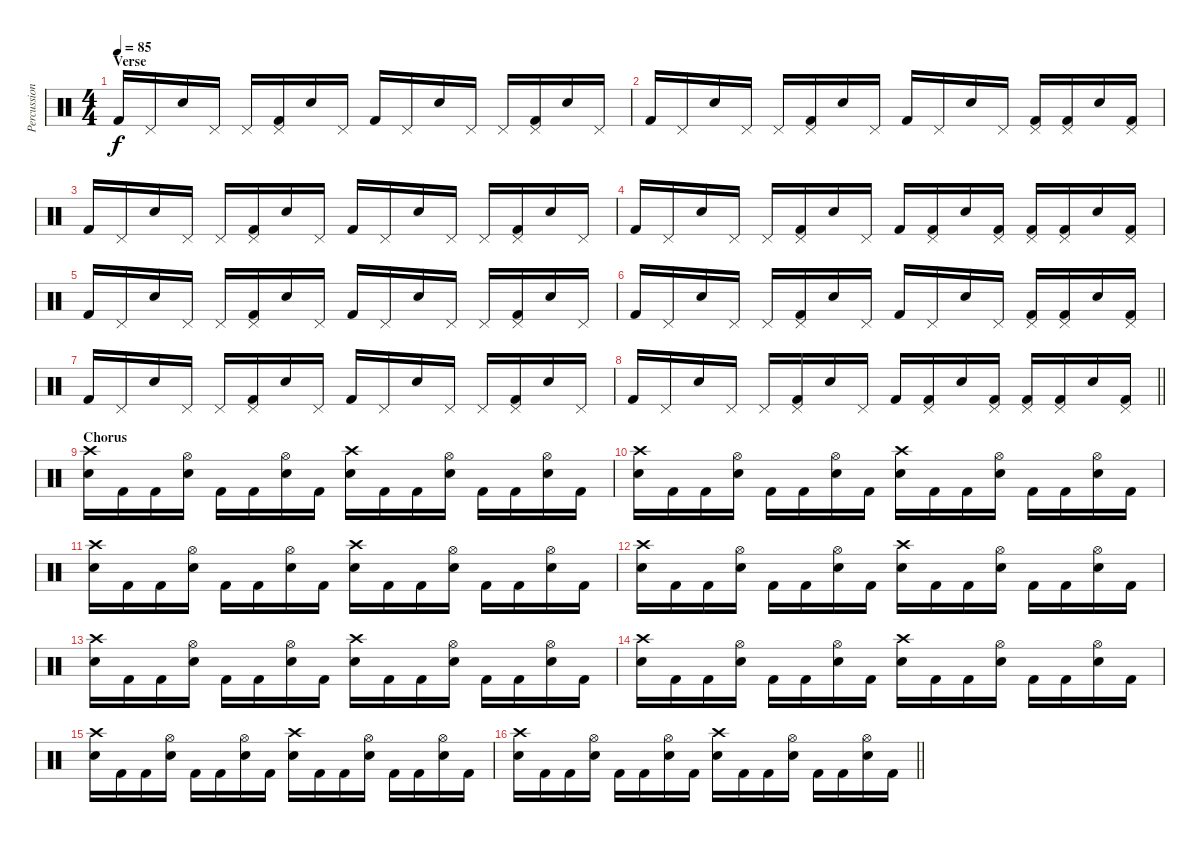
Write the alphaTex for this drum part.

\track ("Percussion" "Percussion") {instrument percussion}
\staff {score}
\articulation defaults
\ts (4 4)
\section ("" "Verse")
\tempo 85
\clef neutral
\ks c "Kick (hit) 2".16{dy f} "Pedal Hi-Hat (hit)".16 "Snare (hit) 2".16 "Pedal Hi-Hat (hit)".16 "Pedal Hi-Hat (hit)".16
("Pedal Hi-Hat (hit)" "Kick (hit) 2").16 "Snare (hit) 2".16 "Pedal Hi-Hat (hit)".16 "Kick (hit) 2".16 "Pedal Hi-Hat (hit)".16 "Snare (hit) 2".16 "Pedal Hi-Hat (hit)".16 "Pedal Hi-Hat (hit)".16 ("Pedal Hi-Hat (hit)" "Kick (hit) 2").16 "Snare (hit) 2".16 "Pedal Hi-Hat (hit)".16 |
"Kick (hit) 2".16 "Pedal Hi-Hat (hit)".16 "Snare (hit) 2".16 "Pedal Hi-Hat (hit)".16 "Pedal Hi-Hat (hit)".16 ("Pedal Hi-Hat (hit)" "Kick (hit) 2").16 "Snare (hit) 2".16 "Pedal Hi-Hat (hit)".16 "Kick (hit) 2".16 "Pedal Hi-Hat (hit)".16 "Snare (hit) 2".16 "Pedal Hi-Hat (hit)".16 ("Pedal Hi-Hat (hit)" "Kick (hit) 2").16 ("Pedal Hi-Hat (hit)" "Kick (hit) 2").16 "Snare (hit) 2".16 ("Pedal Hi-Hat (hit)" "Kick (hit) 2").16 |
"Kick (hit) 2".16 "Pedal Hi-Hat (hit)".16 "Snare (hit) 2".16 "Pedal Hi-Hat (hit)".16 "Pedal Hi-Hat (hit)".16 ("Pedal Hi-Hat (hit)" "Kick (hit) 2").16 "Snare (hit) 2".16 "Pedal Hi-Hat (hit)".16 "Kick (hit) 2".16 "Pedal Hi-Hat (hit)".16 "Snare (hit) 2".16 "Pedal Hi-Hat (hit)".16 "Pedal Hi-Hat (hit)".16 ("Pedal Hi-Hat (hit)" "Kick (hit) 2").16 "Snare (hit) 2".16 "Pedal Hi-Hat (hit)".16 |
"Kick (hit) 2".16 "Pedal Hi-Hat (hit)".16 "Snare (hit) 2".16 "Pedal Hi-Hat (hit)".16 "Pedal Hi-Hat (hit)".16 ("Pedal Hi-Hat (hit)" "Kick (hit) 2").16 "Snare (hit) 2".16 "Pedal Hi-Hat (hit)".16 "Kick (hit) 2".16 ("Pedal Hi-Hat (hit)" "Kick (hit) 2").16 "Snare (hit) 2".16 ("Pedal Hi-Hat (hit)" "Kick (hit) 2").16 ("Pedal Hi-Hat (hit)" "Kick (hit) 2").16 ("Pedal Hi-Hat (hit)" "Kick (hit) 2").16 "Snare (hit) 2".16 ("Pedal Hi-Hat (hit)" "Kick (hit) 2").16 |
"Kick (hit) 2".16 "Pedal Hi-Hat (hit)".16 "Snare (hit) 2".16 "Pedal Hi-Hat (hit)".16 "Pedal Hi-Hat (hit)".16 ("Pedal Hi-Hat (hit)" "Kick (hit) 2").16 "Snare (hit) 2".16 "Pedal Hi-Hat (hit)".16 "Kick (hit) 2".16 "Pedal Hi-Hat (hit)".16 "Snare (hit) 2".16 "Pedal Hi-Hat (hit)".16 "Pedal Hi-Hat (hit)".16 ("Pedal Hi-Hat (hit)" "Kick (hit) 2").16 "Snare (hit) 2".16 "Pedal Hi-Hat (hit)".16 |
"Kick (hit) 2".16 "Pedal Hi-Hat (hit)".16 "Snare (hit) 2".16 "Pedal Hi-Hat (hit)".16 "Pedal Hi-Hat (hit)".16 ("Pedal Hi-Hat (hit)" "Kick (hit) 2").16 "Snare (hit) 2".16 "Pedal Hi-Hat (hit)".16 "Kick (hit) 2".16 "Pedal Hi-Hat (hit)".16 "Snare (hit) 2".16 "Pedal Hi-Hat (hit)".16 ("Pedal Hi-Hat (hit)" "Kick (hit) 2").16 ("Pedal Hi-Hat (hit)" "Kick (hit) 2").16 "Snare (hit) 2".16 ("Pedal Hi-Hat (hit)" "Kick (hit) 2").16 |
"Kick (hit) 2".16 "Pedal Hi-Hat (hit)".16 "Snare (hit) 2".16 "Pedal Hi-Hat (hit)".16 "Pedal Hi-Hat (hit)".16 ("Pedal Hi-Hat (hit)" "Kick (hit) 2").16 "Snare (hit) 2".16 "Pedal Hi-Hat (hit)".16 "Kick (hit) 2".16 "Pedal Hi-Hat (hit)".16 "Snare (hit) 2".16 "Pedal Hi-Hat (hit)".16 "Pedal Hi-Hat (hit)".16 ("Pedal Hi-Hat (hit)" "Kick (hit) 2").16 "Snare (hit) 2".16 "Pedal Hi-Hat (hit)".16 |
\barLineRight lightlight "Kick (hit) 2".16 "Pedal Hi-Hat (hit)".16 "Snare (hit) 2".16 "Pedal Hi-Hat (hit)".16 "Pedal Hi-Hat (hit)".16
("Pedal Hi-Hat (hit)" "Kick (hit) 2").16 "Snare (hit) 2".16 "Pedal Hi-Hat (hit)".16 "Kick (hit) 2".16 ("Pedal Hi-Hat (hit)" "Kick (hit) 2").16 "Snare (hit) 2".16 ("Pedal Hi-Hat (hit)" "Kick (hit) 2").16 ("Pedal Hi-Hat (hit)" "Kick (hit) 2").16 ("Pedal Hi-Hat (hit)" "Kick (hit) 2").16 "Snare (hit) 2".16 ("Pedal Hi-Hat (hit)" "Kick (hit) 2").16 |
\section ("" "Chorus")
("Crash high (hit)" "Snare (hit) 2").16 "Kick (hit) 2".16 "Kick (hit) 2".16 ("Hi-Hat (open)" "Snare (hit) 2").16 "Kick (hit) 2".16 "Kick (hit) 2".16 ("Hi-Hat (open)" "Snare (hit) 2").16 "Kick (hit) 2".16 ("Crash high (hit)" "Snare (hit) 2").16 "Kick (hit) 2".16 "Kick (hit) 2".16 ("Hi-Hat (open)" "Snare (hit) 2").16 "Kick (hit) 2".16 "Kick (hit) 2".16 ("Hi-Hat (open)" "Snare (hit) 2").16 "Kick (hit) 2".16 |
("Crash high (hit)" "Snare (hit) 2").16 "Kick (hit) 2".16 "Kick (hit) 2".16 ("Hi-Hat (open)" "Snare (hit) 2").16 "Kick (hit) 2".16 "Kick (hit) 2".16 ("Hi-Hat (open)" "Snare (hit) 2").16 "Kick (hit) 2".16 ("Crash high (hit)" "Snare (hit) 2").16 "Kick (hit) 2".16 "Kick (hit) 2".16 ("Hi-Hat (open)" "Snare (hit) 2").16 "Kick (hit) 2".16 "Kick (hit) 2".16 ("Hi-Hat (open)" "Snare (hit) 2").16 "Kick (hit) 2".16 |
("Crash high (hit)" "Snare (hit) 2").16 "Kick (hit) 2".16 "Kick (hit) 2".16 ("Hi-Hat (open)" "Snare (hit) 2").16 "Kick (hit) 2".16 "Kick (hit) 2".16 ("Hi-Hat (open)" "Snare (hit) 2").16 "Kick (hit) 2".16 ("Crash high (hit)" "Snare (hit) 2").16 "Kick (hit) 2".16 "Kick (hit) 2".16 ("Hi-Hat (open)" "Snare (hit) 2").16 "Kick (hit) 2".16 "Kick (hit) 2".16 ("Hi-Hat (open)" "Snare (hit) 2").16 "Kick (hit) 2".16 |
("Crash high (hit)" "Snare (hit) 2").16 "Kick (hit) 2".16 "Kick (hit) 2".16 ("Hi-Hat (open)" "Snare (hit) 2").16 "Kick (hit) 2".16 "Kick (hit) 2".16 ("Hi-Hat (open)" "Snare (hit) 2").16 "Kick (hit) 2".16 ("Crash high (hit)" "Snare (hit) 2").16 "Kick (hit) 2".16 "Kick (hit) 2".16 ("Hi-Hat (open)" "Snare (hit) 2").16 "Kick (hit) 2".16 "Kick (hit) 2".16 ("Hi-Hat (open)" "Snare (hit) 2").16 "Kick (hit) 2".16 |
("Crash high (hit)" "Snare (hit) 2").16 "Kick (hit) 2".16 "Kick (hit) 2".16 ("Hi-Hat (open)" "Snare (hit) 2").16 "Kick (hit) 2".16 "Kick (hit) 2".16 ("Hi-Hat (open)" "Snare (hit) 2").16 "Kick (hit) 2".16 ("Crash high (hit)" "Snare (hit) 2").16 "Kick (hit) 2".16 "Kick (hit) 2".16 ("Hi-Hat (open)" "Snare (hit) 2").16 "Kick (hit) 2".16 "Kick (hit) 2".16 ("Hi-Hat (open)" "Snare (hit) 2").16 "Kick (hit) 2".16 |
("Crash high (hit)" "Snare (hit) 2").16 "Kick (hit) 2".16 "Kick (hit) 2".16 ("Hi-Hat (open)" "Snare (hit) 2").16 "Kick (hit) 2".16 "Kick (hit) 2".16 ("Hi-Hat (open)" "Snare (hit) 2").16 "Kick (hit) 2".16 ("Crash high (hit)" "Snare (hit) 2").16 "Kick (hit) 2".16 "Kick (hit) 2".16 ("Hi-Hat (open)" "Snare (hit) 2").16 "Kick (hit) 2".16 "Kick (hit) 2".16 ("Hi-Hat (open)" "Snare (hit) 2").16 "Kick (hit) 2".16 |
("Crash high (hit)" "Snare (hit) 2").16 "Kick (hit) 2".16 "Kick (hit) 2".16 ("Hi-Hat (open)" "Snare (hit) 2").16 "Kick (hit) 2".16 "Kick (hit) 2".16 ("Hi-Hat (open)" "Snare (hit) 2").16 "Kick (hit) 2".16 ("Crash high (hit)" "Snare (hit) 2").16 "Kick (hit) 2".16 "Kick (hit) 2".16 ("Hi-Hat (open)" "Snare (hit) 2").16 "Kick (hit) 2".16 "Kick (hit) 2".16 ("Hi-Hat (open)" "Snare (hit) 2").16 "Kick (hit) 2".16 |
\barLineRight lightlight
("Crash high (hit)" "Snare (hit) 2").16 "Kick (hit) 2".16 "Kick (hit) 2".16 ("Hi-Hat (open)" "Snare (hit) 2").16 "Kick (hit) 2".16 "Kick (hit) 2".16 ("Hi-Hat (open)" "Snare (hit) 2").16 "Kick (hit) 2".16 ("Crash high (hit)" "Snare (hit) 2").16 "Kick (hit) 2".16 "Kick (hit) 2".16 ("Hi-Hat (open)" "Snare (hit) 2").16 "Kick (hit) 2".16 "Kick (hit) 2".16 ("Hi-Hat (open)" "Snare (hit) 2").16 "Kick (hit) 2".16
